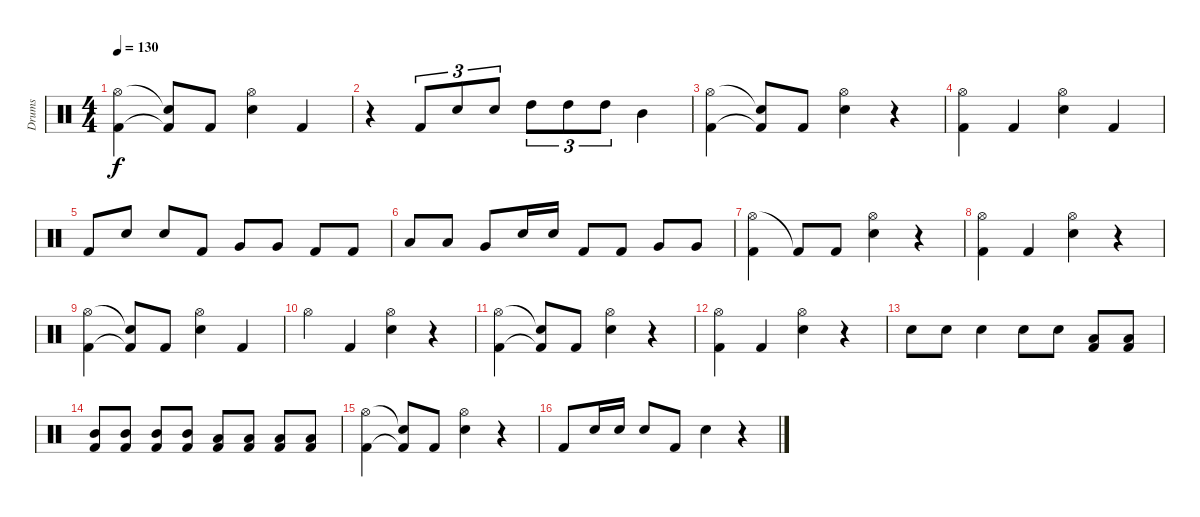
\track ("Drums" "Drums") {instrument percussion}
\staff {score}
\articulation defaults
\ts (4 4)
\tempo 130
\clef neutral
\ks c
("Hi-Hat (open)" "Kick (hit) 2").4{dy f} ("Snare (hit)"{t} "Kick (hit) 2"{t}).8 "Kick (hit) 2".8 ("Hi-Hat (open)" "Electric Snare (hit)").4 "Kick (hit) 2".4 |
r.4 "Kick (hit) 2".8{tu (3 2)} "Electric Snare (hit)".8{tu (3 2)} "Electric Snare (hit)".8{tu (3 2)} "High Tom (hit)".8{tu (3 2)} "High Tom (hit)".8{tu (3 2)} "High Tom (hit)".8{tu (3 2)} "Mid Tom (hit)".4 |
("Hi-Hat (open)" "Kick (hit) 2").4 ("Snare (hit)"{t} "Kick (hit) 2"{t}).8 "Kick (hit) 2".8 ("Hi-Hat (open)" "Electric Snare (hit)").4 r.4 |
("Hi-Hat (open)" "Kick (hit) 2").4 "Kick (hit) 2".4 ("Hi-Hat (open)" "Electric Snare (hit)").4 "Kick (hit) 2".4 |
"Kick (hit) 2".8 "Electric Snare (hit)".8 "Electric Snare (hit)".8 "Kick (hit) 2".8 "Very Low Tom (hit)".8 "Very Low Tom (hit)".8 "Kick (hit) 2".8 "Kick (hit) 2".8 |
"Low Tom (hit)".8 "Low Tom (hit)".8 "Very Low Tom (hit)".8 "Electric Snare (hit)".16 "Electric Snare (hit)".16 "Kick (hit) 2".8 "Kick (hit) 2".8 "Very Low Tom (hit)".8 "Very Low Tom (hit)".8 |
("Hi-Hat (open)" "Kick (hit) 2").4 "Kick (hit) 2"{t}.8 "Kick (hit) 2".8 ("Hi-Hat (open)" "Electric Snare (hit)").4 r.4 |
("Hi-Hat (open)" "Kick (hit) 2").4 "Kick (hit) 2".4 ("Hi-Hat (open)" "Electric Snare (hit)").4 r.4 |
("Hi-Hat (open)" "Kick (hit) 2").4 ("Snare (hit)"{t} "Kick (hit) 2"{t}).8 "Kick (hit) 2".8 ("Hi-Hat (open)" "Electric Snare (hit)").4 "Kick (hit) 2".4 |
"Hi-Hat (open)".4 "Kick (hit) 2".4 ("Hi-Hat (open)" "Electric Snare (hit)").4 r.4 |
("Hi-Hat (open)" "Kick (hit) 2").4 ("Snare (hit)"{t} "Kick (hit) 2"{t}).8 "Kick (hit) 2".8 ("Hi-Hat (open)" "Electric Snare (hit)").4 r.4 |
("Hi-Hat (open)" "Kick (hit) 2").4 "Kick (hit) 2".4 ("Hi-Hat (open)" "Electric Snare (hit)").4 r.4 |
"Electric Snare (hit)".8 "Electric Snare (hit)".8 "Electric Snare (hit)".4 "Electric Snare (hit)".8 "Electric Snare (hit)".8 ("Low Tom (hit)" "Kick (hit) 2").8 ("Low Tom (hit)" "Kick (hit) 2").8 |
("Mid Tom (hit)" "Kick (hit) 2").8 ("Mid Tom (hit)" "Kick (hit) 2").8 ("Mid Tom (hit)" "Kick (hit) 2").8 ("Mid Tom (hit)" "Kick (hit) 2").8 ("Low Tom (hit)" "Kick (hit) 2").8 ("Low Tom (hit)" "Kick (hit) 2").8 ("Low Tom (hit)" "Kick (hit) 2").8 ("Low Tom (hit)" "Kick (hit) 2").8 |
("Hi-Hat (open)" "Kick (hit) 2").4 ("Snare (hit)"{t} "Kick (hit) 2"{t}).8 "Kick (hit) 2".8 ("Hi-Hat (open)" "Electric Snare (hit)").4 r.4 |
"Kick (hit) 2".8 "Electric Snare (hit)".16 "Electric Snare (hit)".16 "Electric Snare (hit)".8 "Kick (hit) 2".8 "Electric Snare (hit)".4 r.4
